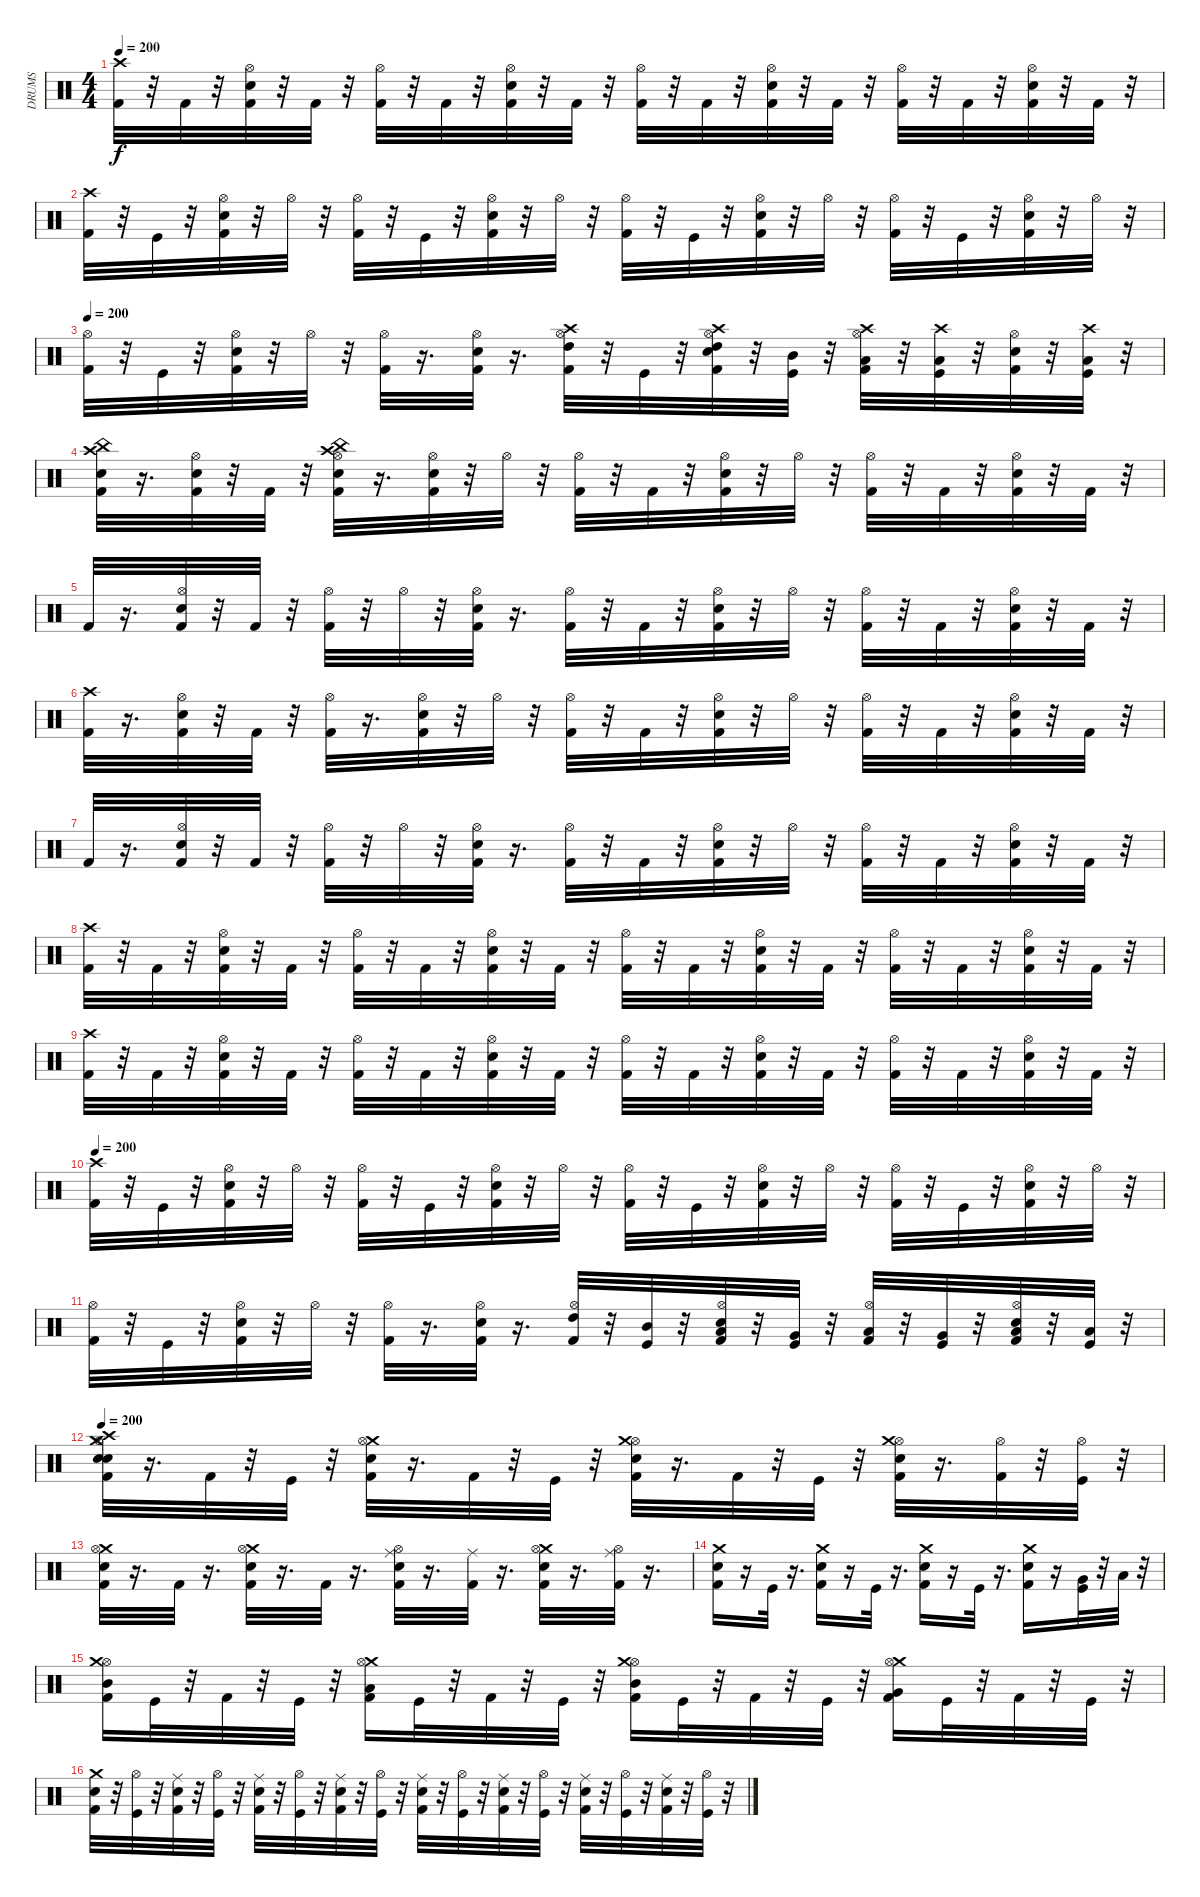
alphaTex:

\track ("DRUMS" "DRUMS") {instrument percussion}
\staff {score}
\articulation defaults
\ts (4 4)
\tempo 200
\clef neutral
\ks c
("Crash high (hit)" "Kick (hit) 2").32{dy f} r.32 "Kick (hit) 2".32 r.32 ("Hi-Hat (open)" "Snare (hit) 2" "Kick (hit) 2").32 r.32 "Kick (hit) 2".32 r.32 ("Hi-Hat (open)" "Kick (hit) 2").32 r.32 "Kick (hit) 2".32 r.32 ("Snare (hit) 2" "Hi-Hat (open)" "Kick (hit) 2").32 r.32 "Kick (hit) 2".32 r.32 ("Kick (hit) 2" "Hi-Hat (open)").32 r.32 "Kick (hit) 2".32 r.32 ("Snare (hit) 2" "Kick (hit) 2" "Hi-Hat (open)").32 r.32 "Kick (hit) 2".32 r.32 ("Hi-Hat (open)" "Kick (hit) 2").32 r.32 "Kick (hit) 2".32 r.32 ("Kick (hit) 2" "Hi-Hat (open)" "Snare (hit) 2").32 r.32 "Kick (hit) 2".32 r.32 |
("Crash high (hit)" "Kick (hit) 2").32 r.32 "Kick (hit)".32 r.32 ("Snare (hit) 2" "Hi-Hat (open)" "Kick (hit) 2").32 r.32 "Hi-Hat (open)".32 r.32 ("Kick (hit) 2" "Hi-Hat (open)").32 r.32 "Kick (hit)".32 r.32 ("Snare (hit) 2" "Kick (hit) 2" "Hi-Hat (open)").32 r.32 "Hi-Hat (open)".32 r.32 ("Hi-Hat (open)" "Kick (hit) 2").32 r.32 "Kick (hit)".32 r.32 ("Hi-Hat (open)" "Snare (hit) 2" "Kick (hit) 2").32 r.32 "Hi-Hat (open)".32 r.32 ("Kick (hit) 2" "Hi-Hat (open)").32 r.32 "Kick (hit)".32 r.32 ("Kick (hit) 2" "Hi-Hat (open)" "Snare (hit) 2").32 r.32 "Hi-Hat (open)".32 r.32 |
\tempo 200
("Kick (hit) 2" "Hi-Hat (open)").32 r.32 "Kick (hit)".32 r.32 ("Kick (hit) 2" "Hi-Hat (open)" "Snare (hit) 2").32 r.32 "Hi-Hat (open)".32 r.32 ("Kick (hit) 2" "Hi-Hat (open)").32 r.16{d} ("Kick (hit) 2" "Snare (hit) 2" "Hi-Hat (open)").32 r.16{d} ("Crash high (hit)" "High Tom (hit)" "Kick (hit) 2" "Hi-Hat (open)").32 r.32 "Kick (hit)".32 r.32 ("Crash high (hit)" "High Tom (hit)" "Kick (hit) 2" "Hi-Hat (open)" "Snare (hit) 2").32 r.32 ("Kick (hit)" "Mid Tom (hit)").32 r.32 ("Crash high (hit)" "Kick (hit) 2" "Hi-Hat (open)" "Low Tom (hit)").32 r.32 ("Crash high (hit)" "Low Tom (hit)" "Kick (hit)").32 r.32 ("Kick (hit) 2" "Snare (hit) 2" "Hi-Hat (open)").32 r.32 ("Crash high (hit)" "Kick (hit)" "Low Tom (hit)").32 r.32 |
("China (hit)" "Snare (hit) 2" "Crash high (hit)" "Kick (hit) 2").32 r.16{d} ("Kick (hit) 2" "Hi-Hat (open)" "Snare (hit) 2").32 r.32 "Kick (hit) 2".32 r.32 ("China (hit)" "Hi-Hat (open)" "Crash high (hit)" "Kick (hit) 2" "Snare (hit) 2").32 r.16{d} ("Snare (hit) 2" "Kick (hit) 2" "Hi-Hat (open)").32 r.32 "Hi-Hat (open)".32 r.32 ("Hi-Hat (open)" "Kick (hit) 2").32 r.32 "Kick (hit) 2".32 r.32 ("Kick (hit) 2" "Snare (hit) 2" "Hi-Hat (open)").32 r.32 "Hi-Hat (open)".32 r.32 ("Hi-Hat (open)" "Kick (hit) 2").32 r.32 "Kick (hit) 2".32 r.32 ("Hi-Hat (open)" "Kick (hit) 2" "Snare (hit) 2").32 r.32 "Kick (hit) 2".32 r.32 |
"Kick (hit) 2".32 r.16{d} ("Kick (hit) 2" "Snare (hit) 2" "Hi-Hat (open)").32 r.32 "Kick (hit) 2".32 r.32 ("Kick (hit) 2" "Hi-Hat (open)").32 r.32 "Hi-Hat (open)".32 r.32 ("Kick (hit) 2" "Hi-Hat (open)" "Snare (hit) 2").32 r.16{d} ("Hi-Hat (open)" "Kick (hit) 2").32 r.32 "Kick (hit) 2".32 r.32 ("Kick (hit) 2" "Hi-Hat (open)" "Snare (hit) 2").32 r.32 "Hi-Hat (open)".32 r.32 ("Hi-Hat (open)" "Kick (hit) 2").32 r.32 "Kick (hit) 2".32 r.32 ("Hi-Hat (open)" "Snare (hit) 2" "Kick (hit) 2").32 r.32 "Kick (hit) 2".32 r.32 |
("Kick (hit) 2" "Crash high (hit)").32 r.16{d} ("Hi-Hat (open)" "Kick (hit) 2" "Snare (hit) 2").32 r.32 "Kick (hit) 2".32 r.32 ("Hi-Hat (open)" "Kick (hit) 2").32 r.16{d} ("Kick (hit) 2" "Snare (hit) 2" "Hi-Hat (open)").32 r.32 "Hi-Hat (open)".32 r.32 ("Hi-Hat (open)" "Kick (hit) 2").32 r.32 "Kick (hit) 2".32 r.32 ("Snare (hit) 2" "Hi-Hat (open)" "Kick (hit) 2").32 r.32 "Hi-Hat (open)".32 r.32 ("Kick (hit) 2" "Hi-Hat (open)").32 r.32 "Kick (hit) 2".32 r.32 ("Hi-Hat (open)" "Kick (hit) 2" "Snare (hit) 2").32 r.32 "Kick (hit) 2".32 r.32 |
"Kick (hit) 2".32 r.16{d} ("Kick (hit) 2" "Snare (hit) 2" "Hi-Hat (open)").32 r.32 "Kick (hit) 2".32 r.32 ("Kick (hit) 2" "Hi-Hat (open)").32 r.32 "Hi-Hat (open)".32 r.32 ("Hi-Hat (open)" "Kick (hit) 2" "Snare (hit) 2").32 r.16{d} ("Hi-Hat (open)" "Kick (hit) 2").32 r.32 "Kick (hit) 2".32 r.32 ("Snare (hit) 2" "Hi-Hat (open)" "Kick (hit) 2").32 r.32 "Hi-Hat (open)".32 r.32 ("Kick (hit) 2" "Hi-Hat (open)").32 r.32 "Kick (hit) 2".32 r.32 ("Kick (hit) 2" "Snare (hit) 2" "Hi-Hat (open)").32 r.32 "Kick (hit) 2".32 r.32 |
("Kick (hit) 2" "Crash high (hit)").32 r.32 "Kick (hit) 2".32 r.32 ("Kick (hit) 2" "Hi-Hat (open)" "Snare (hit) 2").32 r.32 "Kick (hit) 2".32 r.32 ("Hi-Hat (open)" "Kick (hit) 2").32 r.32 "Kick (hit) 2".32 r.32 ("Snare (hit) 2" "Kick (hit) 2" "Hi-Hat (open)").32 r.32 "Kick (hit) 2".32 r.32 ("Kick (hit) 2" "Hi-Hat (open)").32 r.32 "Kick (hit) 2".32 r.32 ("Snare (hit) 2" "Kick (hit) 2" "Hi-Hat (open)").32 r.32 "Kick (hit) 2".32 r.32 ("Hi-Hat (open)" "Kick (hit) 2").32 r.32 "Kick (hit) 2".32 r.32 ("Hi-Hat (open)" "Snare (hit) 2" "Kick (hit) 2").32 r.32 "Kick (hit) 2".32 r.32 |
("Crash high (hit)" "Kick (hit) 2").32 r.32 "Kick (hit) 2".32 r.32 ("Hi-Hat (open)" "Snare (hit) 2" "Kick (hit) 2").32 r.32 "Kick (hit) 2".32 r.32 ("Hi-Hat (open)" "Kick (hit) 2").32 r.32 "Kick (hit) 2".32 r.32 ("Kick (hit) 2" "Snare (hit) 2" "Hi-Hat (open)").32 r.32 "Kick (hit) 2".32 r.32 ("Kick (hit) 2" "Hi-Hat (open)").32 r.32 "Kick (hit) 2".32 r.32 ("Snare (hit) 2" "Kick (hit) 2" "Hi-Hat (open)").32 r.32 "Kick (hit) 2".32 r.32 ("Hi-Hat (open)" "Kick (hit) 2").32 r.32 "Kick (hit) 2".32 r.32 ("Kick (hit) 2" "Hi-Hat (open)" "Snare (hit) 2").32 r.32 "Kick (hit) 2".32 r.32 |
\tempo 200
("Crash high (hit)" "Kick (hit) 2").32 r.32 "Kick (hit)".32 r.32 ("Snare (hit) 2" "Hi-Hat (open)" "Kick (hit) 2").32 r.32 "Hi-Hat (open)".32 r.32 ("Kick (hit) 2" "Hi-Hat (open)").32 r.32 "Kick (hit)".32 r.32 ("Hi-Hat (open)" "Snare (hit) 2" "Kick (hit) 2").32 r.32 "Hi-Hat (open)".32 r.32 ("Hi-Hat (open)" "Kick (hit) 2").32 r.32 "Kick (hit)".32 r.32 ("Snare (hit) 2" "Kick (hit) 2" "Hi-Hat (open)").32 r.32 "Hi-Hat (open)".32 r.32 ("Kick (hit) 2" "Hi-Hat (open)").32 r.32 "Kick (hit)".32 r.32 ("Kick (hit) 2" "Hi-Hat (open)" "Snare (hit) 2").32 r.32 "Hi-Hat (open)".32 r.32 |
("Kick (hit) 2" "Hi-Hat (open)").32 r.32 "Kick (hit)".32 r.32 ("Hi-Hat (open)" "Snare (hit) 2" "Kick (hit) 2").32 r.32 "Hi-Hat (open)".32 r.32 ("Kick (hit) 2" "Hi-Hat (open)").32 r.16{d} ("Kick (hit) 2" "Snare (hit) 2" "Hi-Hat (open)").32 r.16{d} ("High Tom (hit)" "Kick (hit) 2" "Hi-Hat (open)").32 r.32 ("Kick (hit)" "Mid Tom (hit)").32 r.32 ("Low Tom (hit)" "Kick (hit) 2" "Hi-Hat (open)" "Snare (hit) 2").32 r.32 ("Kick (hit)" "Very Low Tom (hit)").32 r.32 ("Kick (hit) 2" "Hi-Hat (open)" "Low Tom (hit)").32 r.32 ("Kick (hit)" "Very Low Tom (hit)").32 r.32 ("Kick (hit) 2" "Low Floor Tom (hit)" "Snare (hit) 2" "Hi-Hat (open)").32 r.32 ("Kick (hit)" "Low Floor Tom (hit)").32 r.32 |
\tempo 200
("Snare (hit) 2" "Kick (hit) 2" "Hi-Hat (open)" "Crash medium (hit)" "Crash high (hit)" "Electric Snare (hit)").32 r.16{d} "Kick (hit) 2".32 r.32 "Kick (hit)".32 r.32 ("Crash medium (hit)" "Snare (hit) 2" "Hi-Hat (open)" "Kick (hit) 2").32 r.16{d} "Kick (hit) 2".32 r.32 "Kick (hit)".32 r.32 ("Hi-Hat (open)" "Snare (hit) 2" "Kick (hit) 2" "Crash medium (hit)").32 r.16{d} "Kick (hit) 2".32 r.32 "Kick (hit)".32 r.32 ("Kick (hit) 2" "Snare (hit) 2" "Hi-Hat (open)" "Crash medium (hit)").32 r.16{d} ("Kick (hit) 2" "Hi-Hat (open)").32 r.32 ("Hi-Hat (open)" "Kick (hit)").32 r.32 |
("Crash medium (hit)" "Hi-Hat (open)" "Kick (hit) 2" "Snare (hit) 2").32 r.16{d} "Kick (hit) 2".32 r.16{d} ("Crash medium (hit)" "Kick (hit) 2" "Hi-Hat (open)" "Snare (hit) 2").32 r.16{d} "Kick (hit) 2".32 r.16{d} ("Ride (middle)" "Kick (hit) 2" "Hi-Hat (open)" "Snare (hit) 2").32 r.16{d} ("Ride (middle)" "Kick (hit) 2").32 r.16{d} ("Crash medium (hit)" "Hi-Hat (open)" "Snare (hit) 2" "Kick (hit) 2").32 r.16{d} ("Hi-Hat (open)" "Kick (hit) 2" "Ride (middle)").32 r.16{d} |
("Crash medium (hit)" "Kick (hit) 2" "Snare (hit) 2").16 r.16 "Kick (hit)".32 r.16{d} ("Crash medium (hit)" "Snare (hit) 2" "Kick (hit) 2").16 r.16 "Kick (hit)".32 r.16{d} ("Snare (hit) 2" "Kick (hit) 2" "Crash medium (hit)").16 r.16 "Kick (hit)".32 r.16{d} ("Kick (hit) 2" "Crash medium (hit)" "Snare (hit) 2").16 r.16 ("Very Low Tom (hit)" "Kick (hit)").32 r.32 "Low Floor Tom (hit)".32 r.32 |
("Hi-Hat (open)" "Mid Tom (hit)" "Kick (hit) 2" "Crash medium (hit)").16 "Kick (hit)".32 r.32 "Kick (hit) 2".32 r.32 "Kick (hit)".32 r.32 ("Crash medium (hit)" "Hi-Hat (open)" "Kick (hit) 2" "Low Tom (hit)").16 "Kick (hit)".32 r.32 "Kick (hit) 2".32 r.32 "Kick (hit)".32 r.32 ("Kick (hit) 2" "Hi-Hat (open)" "Crash medium (hit)" "Mid Tom (hit)").16 "Kick (hit)".32 r.32 "Kick (hit) 2".32 r.32 "Kick (hit)".32 r.32 ("Kick (hit) 2" "Crash medium (hit)" "Hi-Hat (open)" "Very Low Tom (hit)").16 "Kick (hit)".32 r.32 "Kick (hit) 2".32 r.32 "Kick (hit)".32 r.32 |
("Snare (hit) 2" "Kick (hit) 2" "Crash medium (hit)").32 r.32 ("Kick (hit)" "Hi-Hat (open)").32 r.32 ("Ride (middle)" "Snare (hit) 2" "Kick (hit) 2").32 r.32 ("Hi-Hat (open)" "Kick (hit)").32 r.32 ("Ride (middle)" "Snare (hit) 2" "Kick (hit) 2").32 r.32 ("Kick (hit)" "Hi-Hat (open)").32 r.32 ("Kick (hit) 2" "Snare (hit) 2" "Ride (middle)").32 r.32 ("Hi-Hat (open)" "Kick (hit)").32 r.32 ("Snare (hit) 2" "Ride (middle)" "Kick (hit) 2").32 r.32 ("Kick (hit)" "Hi-Hat (open)").32 r.32 ("Snare (hit) 2" "Kick (hit) 2" "Ride (middle)").32 r.32 ("Kick (hit)" "Hi-Hat (open)").32 r.32 ("Snare (hit) 2" "Ride (middle)" "Kick (hit) 2").32 r.32 ("Kick (hit)" "Hi-Hat (open)").32 r.32 ("Ride (middle)" "Snare (hit) 2" "Kick (hit) 2").32 r.32 ("Hi-Hat (open)" "Kick (hit)").32 r.32
